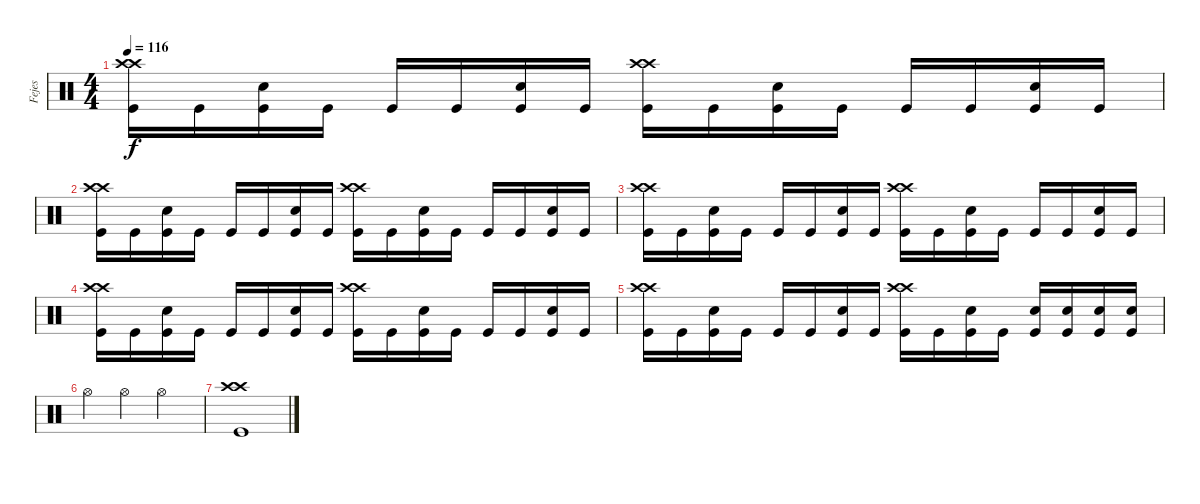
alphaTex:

\track ("Fejes" "Fejes") {instrument percussion}
\staff {score}
\articulation defaults
\ts (4 4)
\tempo 116
\clef neutral
\ks c
("Crash high (hit)" "Crash high (hit)" "Kick (hit)").16{dy f} "Kick (hit)".16 ("Snare (hit) 2" "Kick (hit)").16 "Kick (hit)".16 "Kick (hit)".16 "Kick (hit)".16 ("Snare (hit) 2" "Kick (hit)").16 "Kick (hit)".16 ("Crash high (hit)" "Crash high (hit)" "Kick (hit)").16 "Kick (hit)".16 ("Snare (hit) 2" "Kick (hit)").16 "Kick (hit)".16 "Kick (hit)".16 "Kick (hit)".16 ("Snare (hit) 2" "Kick (hit)").16 "Kick (hit)".16 |
("Crash high (hit)" "Crash high (hit)" "Kick (hit)").16 "Kick (hit)".16 ("Snare (hit) 2" "Kick (hit)").16 "Kick (hit)".16 "Kick (hit)".16 "Kick (hit)".16 ("Snare (hit) 2" "Kick (hit)").16 "Kick (hit)".16 ("Crash high (hit)" "Crash high (hit)" "Kick (hit)").16 "Kick (hit)".16 ("Snare (hit) 2" "Kick (hit)").16 "Kick (hit)".16 "Kick (hit)".16 "Kick (hit)".16 ("Snare (hit) 2" "Kick (hit)").16 "Kick (hit)".16 |
("Crash high (hit)" "Crash high (hit)" "Kick (hit)").16 "Kick (hit)".16 ("Snare (hit) 2" "Kick (hit)").16 "Kick (hit)".16 "Kick (hit)".16 "Kick (hit)".16 ("Snare (hit) 2" "Kick (hit)").16 "Kick (hit)".16 ("Crash high (hit)" "Crash high (hit)" "Kick (hit)").16 "Kick (hit)".16 ("Snare (hit) 2" "Kick (hit)").16 "Kick (hit)".16 "Kick (hit)".16 "Kick (hit)".16 ("Snare (hit) 2" "Kick (hit)").16 "Kick (hit)".16 |
("Crash high (hit)" "Crash high (hit)" "Kick (hit)").16 "Kick (hit)".16 ("Snare (hit) 2" "Kick (hit)").16 "Kick (hit)".16 "Kick (hit)".16 "Kick (hit)".16 ("Snare (hit) 2" "Kick (hit)").16 "Kick (hit)".16 ("Crash high (hit)" "Crash high (hit)" "Kick (hit)").16 "Kick (hit)".16 ("Snare (hit) 2" "Kick (hit)").16 "Kick (hit)".16 "Kick (hit)".16 "Kick (hit)".16 ("Snare (hit) 2" "Kick (hit)").16 "Kick (hit)".16 |
("Crash high (hit)" "Crash high (hit)" "Kick (hit)").16 "Kick (hit)".16 ("Snare (hit) 2" "Kick (hit)").16 "Kick (hit)".16 "Kick (hit)".16 "Kick (hit)".16 ("Snare (hit) 2" "Kick (hit)").16 "Kick (hit)".16 ("Crash high (hit)" "Crash high (hit)" "Kick (hit)").16 "Kick (hit)".16 ("Snare (hit) 2" "Kick (hit)").16 "Kick (hit)".16 ("Snare (hit) 2" "Kick (hit)").16 ("Snare (hit) 2" "Kick (hit)").16 ("Snare (hit) 2" "Kick (hit)").16 ("Snare (hit) 2" "Kick (hit)").16 |
"Hi-Hat (open)".4 "Hi-Hat (open)".4 "Hi-Hat (open)".2 |
("Crash high (hit)" "Crash high (hit)" "Kick (hit)").1
